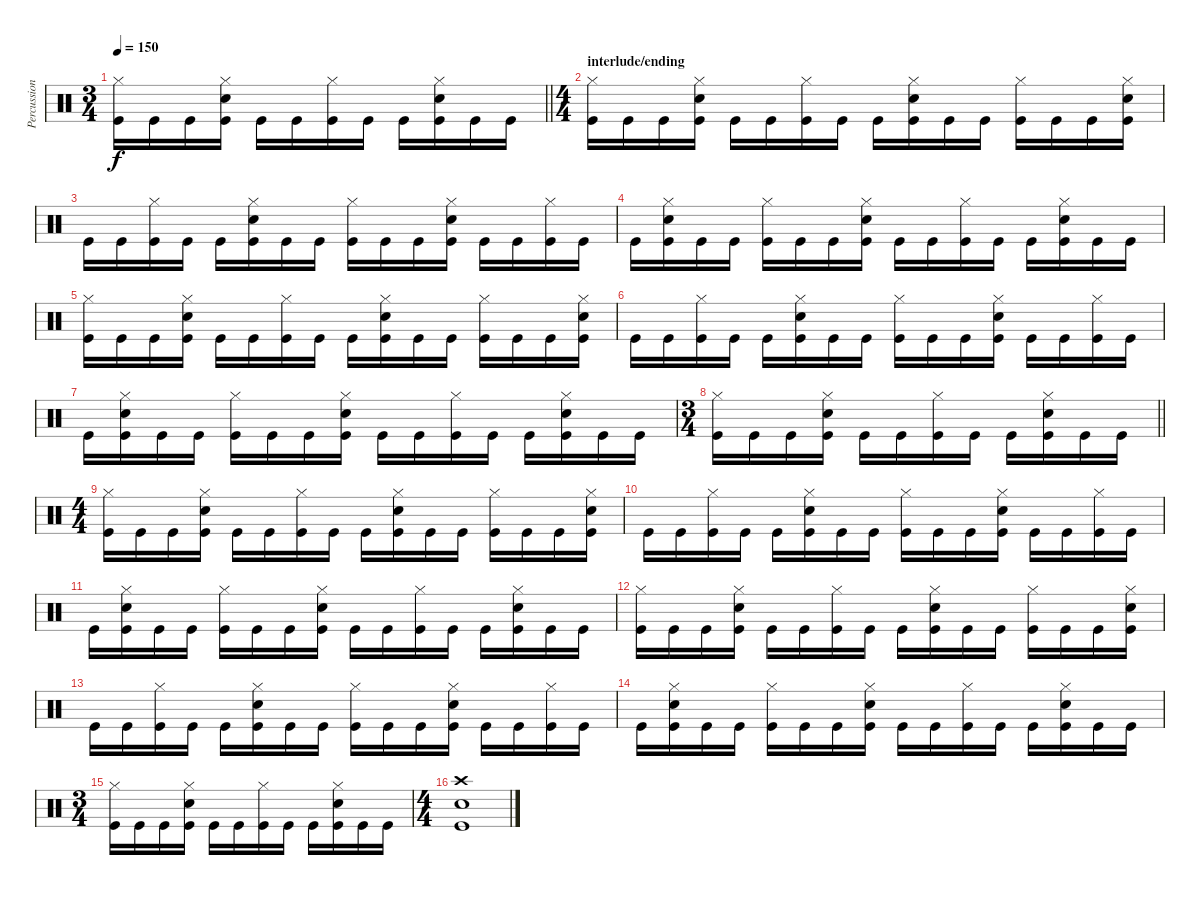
\track ("Percussion" "Percussion") {instrument percussion}
\staff {score}
\articulation defaults
\ts (3 4)
\tempo 150
\clef neutral
\barLineRight lightlight
\ks c
("Hi-Hat (closed)" "Kick (hit)").16{dy f} "Kick (hit)".16 "Kick (hit)".16 ("Hi-Hat (closed)" "Kick (hit)" "Snare (hit) 2").16 "Kick (hit)".16 "Kick (hit)".16 ("Hi-Hat (closed)" "Kick (hit)").16 "Kick (hit)".16 "Kick (hit)".16 ("Hi-Hat (closed)" "Kick (hit)" "Snare (hit) 2").16 "Kick (hit)".16 "Kick (hit)".16 |
\ts (4 4)
\section ("" "interlude/ending")
("Hi-Hat (closed)" "Kick (hit)").16 "Kick (hit)".16 "Kick (hit)".16 ("Hi-Hat (closed)" "Kick (hit)" "Snare (hit) 2").16 "Kick (hit)".16 "Kick (hit)".16 ("Hi-Hat (closed)" "Kick (hit)").16 "Kick (hit)".16 "Kick (hit)".16 ("Hi-Hat (closed)" "Kick (hit)" "Snare (hit) 2").16 "Kick (hit)".16 "Kick (hit)".16 ("Hi-Hat (closed)" "Kick (hit)").16 "Kick (hit)".16 "Kick (hit)".16 ("Hi-Hat (closed)" "Kick (hit)" "Snare (hit) 2").16 |
"Kick (hit)".16 "Kick (hit)".16 ("Hi-Hat (closed)" "Kick (hit)").16 "Kick (hit)".16 "Kick (hit)".16 ("Hi-Hat (closed)" "Kick (hit)" "Snare (hit) 2").16 "Kick (hit)".16 "Kick (hit)".16 ("Hi-Hat (closed)" "Kick (hit)").16 "Kick (hit)".16 "Kick (hit)".16 ("Hi-Hat (closed)" "Kick (hit)" "Snare (hit) 2").16 "Kick (hit)".16 "Kick (hit)".16 ("Hi-Hat (closed)" "Kick (hit)").16 "Kick (hit)".16 |
"Kick (hit)".16 ("Hi-Hat (closed)" "Kick (hit)" "Snare (hit) 2").16 "Kick (hit)".16 "Kick (hit)".16 ("Hi-Hat (closed)" "Kick (hit)").16 "Kick (hit)".16 "Kick (hit)".16 ("Hi-Hat (closed)" "Kick (hit)" "Snare (hit) 2").16 "Kick (hit)".16 "Kick (hit)".16 ("Hi-Hat (closed)" "Kick (hit)").16 "Kick (hit)".16 "Kick (hit)".16 ("Hi-Hat (closed)" "Kick (hit)" "Snare (hit) 2").16 "Kick (hit)".16 "Kick (hit)".16 |
("Hi-Hat (closed)" "Kick (hit)").16 "Kick (hit)".16 "Kick (hit)".16 ("Hi-Hat (closed)" "Kick (hit)" "Snare (hit) 2").16 "Kick (hit)".16 "Kick (hit)".16 ("Hi-Hat (closed)" "Kick (hit)").16 "Kick (hit)".16 "Kick (hit)".16 ("Hi-Hat (closed)" "Kick (hit)" "Snare (hit) 2").16 "Kick (hit)".16 "Kick (hit)".16 ("Hi-Hat (closed)" "Kick (hit)").16 "Kick (hit)".16 "Kick (hit)".16 ("Hi-Hat (closed)" "Kick (hit)" "Snare (hit) 2").16 |
"Kick (hit)".16 "Kick (hit)".16 ("Hi-Hat (closed)" "Kick (hit)").16 "Kick (hit)".16 "Kick (hit)".16 ("Hi-Hat (closed)" "Kick (hit)" "Snare (hit) 2").16 "Kick (hit)".16 "Kick (hit)".16 ("Hi-Hat (closed)" "Kick (hit)").16 "Kick (hit)".16 "Kick (hit)".16 ("Hi-Hat (closed)" "Kick (hit)" "Snare (hit) 2").16 "Kick (hit)".16 "Kick (hit)".16 ("Hi-Hat (closed)" "Kick (hit)").16 "Kick (hit)".16 |
"Kick (hit)".16 ("Hi-Hat (closed)" "Kick (hit)" "Snare (hit) 2").16 "Kick (hit)".16 "Kick (hit)".16 ("Hi-Hat (closed)" "Kick (hit)").16 "Kick (hit)".16 "Kick (hit)".16 ("Hi-Hat (closed)" "Kick (hit)" "Snare (hit) 2").16 "Kick (hit)".16 "Kick (hit)".16 ("Hi-Hat (closed)" "Kick (hit)").16 "Kick (hit)".16 "Kick (hit)".16 ("Hi-Hat (closed)" "Kick (hit)" "Snare (hit) 2").16 "Kick (hit)".16 "Kick (hit)".16 |
\ts (3 4)
\barLineRight lightlight
("Hi-Hat (closed)" "Kick (hit)").16 "Kick (hit)".16 "Kick (hit)".16 ("Hi-Hat (closed)" "Kick (hit)" "Snare (hit) 2").16 "Kick (hit)".16 "Kick (hit)".16 ("Hi-Hat (closed)" "Kick (hit)").16 "Kick (hit)".16 "Kick (hit)".16 ("Hi-Hat (closed)" "Kick (hit)" "Snare (hit) 2").16 "Kick (hit)".16 "Kick (hit)".16 |
\ts (4 4)
("Hi-Hat (closed)" "Kick (hit)").16 "Kick (hit)".16 "Kick (hit)".16 ("Hi-Hat (closed)" "Kick (hit)" "Snare (hit) 2").16 "Kick (hit)".16 "Kick (hit)".16 ("Hi-Hat (closed)" "Kick (hit)").16 "Kick (hit)".16 "Kick (hit)".16 ("Hi-Hat (closed)" "Kick (hit)" "Snare (hit) 2").16 "Kick (hit)".16 "Kick (hit)".16 ("Hi-Hat (closed)" "Kick (hit)").16 "Kick (hit)".16 "Kick (hit)".16 ("Hi-Hat (closed)" "Kick (hit)" "Snare (hit) 2").16 |
"Kick (hit)".16 "Kick (hit)".16 ("Hi-Hat (closed)" "Kick (hit)").16 "Kick (hit)".16 "Kick (hit)".16 ("Hi-Hat (closed)" "Kick (hit)" "Snare (hit) 2").16 "Kick (hit)".16 "Kick (hit)".16 ("Hi-Hat (closed)" "Kick (hit)").16 "Kick (hit)".16 "Kick (hit)".16 ("Hi-Hat (closed)" "Kick (hit)" "Snare (hit) 2").16 "Kick (hit)".16 "Kick (hit)".16 ("Hi-Hat (closed)" "Kick (hit)").16 "Kick (hit)".16 |
"Kick (hit)".16 ("Hi-Hat (closed)" "Kick (hit)" "Snare (hit) 2").16 "Kick (hit)".16 "Kick (hit)".16 ("Hi-Hat (closed)" "Kick (hit)").16 "Kick (hit)".16 "Kick (hit)".16 ("Hi-Hat (closed)" "Kick (hit)" "Snare (hit) 2").16 "Kick (hit)".16 "Kick (hit)".16 ("Hi-Hat (closed)" "Kick (hit)").16 "Kick (hit)".16 "Kick (hit)".16 ("Hi-Hat (closed)" "Kick (hit)" "Snare (hit) 2").16 "Kick (hit)".16 "Kick (hit)".16 |
("Hi-Hat (closed)" "Kick (hit)").16 "Kick (hit)".16 "Kick (hit)".16 ("Hi-Hat (closed)" "Kick (hit)" "Snare (hit) 2").16 "Kick (hit)".16 "Kick (hit)".16 ("Hi-Hat (closed)" "Kick (hit)").16 "Kick (hit)".16 "Kick (hit)".16 ("Hi-Hat (closed)" "Kick (hit)" "Snare (hit) 2").16 "Kick (hit)".16 "Kick (hit)".16 ("Hi-Hat (closed)" "Kick (hit)").16 "Kick (hit)".16 "Kick (hit)".16 ("Hi-Hat (closed)" "Kick (hit)" "Snare (hit) 2").16 |
"Kick (hit)".16 "Kick (hit)".16 ("Hi-Hat (closed)" "Kick (hit)").16 "Kick (hit)".16 "Kick (hit)".16 ("Hi-Hat (closed)" "Kick (hit)" "Snare (hit) 2").16 "Kick (hit)".16 "Kick (hit)".16 ("Hi-Hat (closed)" "Kick (hit)").16 "Kick (hit)".16 "Kick (hit)".16 ("Hi-Hat (closed)" "Kick (hit)" "Snare (hit) 2").16 "Kick (hit)".16 "Kick (hit)".16 ("Hi-Hat (closed)" "Kick (hit)").16 "Kick (hit)".16 |
"Kick (hit)".16 ("Hi-Hat (closed)" "Kick (hit)" "Snare (hit) 2").16 "Kick (hit)".16 "Kick (hit)".16 ("Hi-Hat (closed)" "Kick (hit)").16 "Kick (hit)".16 "Kick (hit)".16 ("Hi-Hat (closed)" "Kick (hit)" "Snare (hit) 2").16 "Kick (hit)".16 "Kick (hit)".16 ("Hi-Hat (closed)" "Kick (hit)").16 "Kick (hit)".16 "Kick (hit)".16 ("Hi-Hat (closed)" "Kick (hit)" "Snare (hit) 2").16 "Kick (hit)".16 "Kick (hit)".16 |
\ts (3 4)
("Hi-Hat (closed)" "Kick (hit)").16 "Kick (hit)".16 "Kick (hit)".16 ("Hi-Hat (closed)" "Kick (hit)" "Snare (hit) 2").16 "Kick (hit)".16 "Kick (hit)".16 ("Hi-Hat (closed)" "Kick (hit)").16 "Kick (hit)".16 "Kick (hit)".16 ("Hi-Hat (closed)" "Kick (hit)" "Snare (hit) 2").16 "Kick (hit)".16 "Kick (hit)".16 |
\ts (4 4)
("Kick (hit)" "Snare (hit) 2" "Crash high (hit)").1
